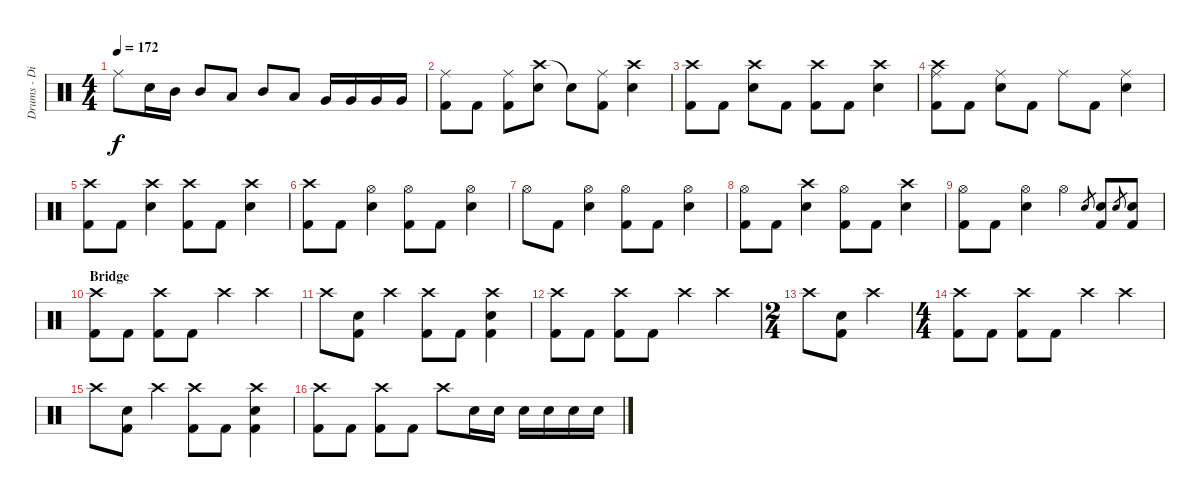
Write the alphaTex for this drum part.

\track ("Drums - Dino Campanella" "Drums - Di") {instrument percussion}
\staff {score}
\articulation defaults
\ts (4 4)
\tempo 172
\clef neutral
\ks c "Ride (middle)".8{dy f} "Electric Snare (hit)".16 "Mid Tom (hit)".16 "Mid Tom (hit)".8 "Low Tom (hit)".8 "Mid Tom (hit)".8 "Low Tom (hit)".8 "Very Low Tom (hit)".16 "Very Low Tom (hit)".16 "Very Low Tom (hit)".16 "Very Low Tom (hit)".16
|
("Ride (middle)" "Kick (hit) 2").8 "Kick (hit) 2".8 ("Ride (middle)" "Kick (hit) 2").8 ("Crash high (hit)" "Electric Snare (hit)").8 "Snare (hit)"{t}.8 ("Ride (middle)" "Kick (hit) 2").8 ("Crash high (hit)" "Electric Snare (hit)").4 |
("Crash high (hit)" "Kick (hit) 2").8 "Kick (hit) 2".8 ("Crash high (hit)" "Electric Snare (hit)").8 "Kick (hit) 2".8 ("Crash high (hit)" "Kick (hit) 2").8 "Kick (hit) 2".8 ("Crash high (hit)" "Electric Snare (hit)").4 |
("Crash high (hit)" "Ride (middle)" "Kick (hit) 2").8 "Kick (hit) 2".8 ("Ride (middle)" "Electric Snare (hit)").8 "Kick (hit) 2".8 "Ride (middle)".8 "Kick (hit) 2".8 ("Ride (middle)" "Electric Snare (hit)").4 |
("Crash high (hit)" "Kick (hit) 2").8 "Kick (hit) 2".8 ("Crash high (hit)" "Electric Snare (hit)").4 ("Crash high (hit)" "Kick (hit) 2").8 "Kick (hit) 2".8 ("Crash high (hit)" "Electric Snare (hit)").4 |
("Crash high (hit)" "Kick (hit) 2").8 "Kick (hit) 2".8 ("Hi-Hat (open)" "Electric Snare (hit)").4 ("Hi-Hat (open)" "Kick (hit) 2").8 "Kick (hit) 2".8 ("Hi-Hat (open)" "Electric Snare (hit)").4 |
"Hi-Hat (open)".8 "Kick (hit) 2".8 ("Hi-Hat (open)" "Electric Snare (hit)").4 ("Hi-Hat (open)" "Kick (hit) 2").8 "Kick (hit) 2".8 ("Hi-Hat (open)" "Electric Snare (hit)").4 |
("Hi-Hat (open)" "Kick (hit) 2").8 "Kick (hit) 2".8 ("Crash high (hit)" "Electric Snare (hit)").4 ("Hi-Hat (open)" "Kick (hit) 2").8 "Kick (hit) 2".8 ("Crash high (hit)" "Electric Snare (hit)").4 |
("Hi-Hat (open)" "Kick (hit) 2").8 "Kick (hit) 2".8 ("Hi-Hat (open)" "Electric Snare (hit)").4 "Hi-Hat (open)".4 "Electric Snare (hit)".8{gr} ("Electric Snare (hit)" "Kick (hit) 2").8 "Electric Snare (hit)".8{gr} ("Electric Snare (hit)" "Kick (hit) 2").8 |
\section ("" "Bridge")
("Crash high (hit)" "Kick (hit) 2").8 "Kick (hit) 2".8 ("Crash high (hit)" "Kick (hit) 2").8 "Kick (hit) 2".8 "Crash high (hit)".4 "Crash high (hit)".4 |
"Crash high (hit)".8 ("Electric Snare (hit)" "Kick (hit) 2").8 "Crash high (hit)".4 ("Crash high (hit)" "Kick (hit) 2").8 "Kick (hit) 2".8 ("Crash high (hit)" "Electric Snare (hit)" "Kick (hit) 2").4 |
("Crash high (hit)" "Kick (hit) 2").8 "Kick (hit) 2".8 ("Crash high (hit)" "Kick (hit) 2").8 "Kick (hit) 2".8 "Crash high (hit)".4 "Crash high (hit)".4 |
\ts (2 4)
"Crash high (hit)".8 ("Electric Snare (hit)" "Kick (hit) 2").8 "Crash high (hit)".4 |
\ts (4 4)
("Crash high (hit)" "Kick (hit) 2").8 "Kick (hit) 2".8 ("Crash high (hit)" "Kick (hit) 2").8 "Kick (hit) 2".8 "Crash high (hit)".4 "Crash high (hit)".4 |
"Crash high (hit)".8 ("Electric Snare (hit)" "Kick (hit) 2").8 "Crash high (hit)".4 ("Crash high (hit)" "Kick (hit) 2").8 "Kick (hit) 2".8 ("Crash high (hit)" "Electric Snare (hit)" "Kick (hit) 2").4 |
("Crash high (hit)" "Kick (hit) 2").8 "Kick (hit) 2".8 ("Crash high (hit)" "Kick (hit) 2").8 "Kick (hit) 2".8 "Crash high (hit)".8 "Electric Snare (hit)".16 "Electric Snare (hit)".16 "Electric Snare (hit)".16 "Electric Snare (hit)".16 "Electric Snare (hit)".16 "Electric Snare (hit)".16
